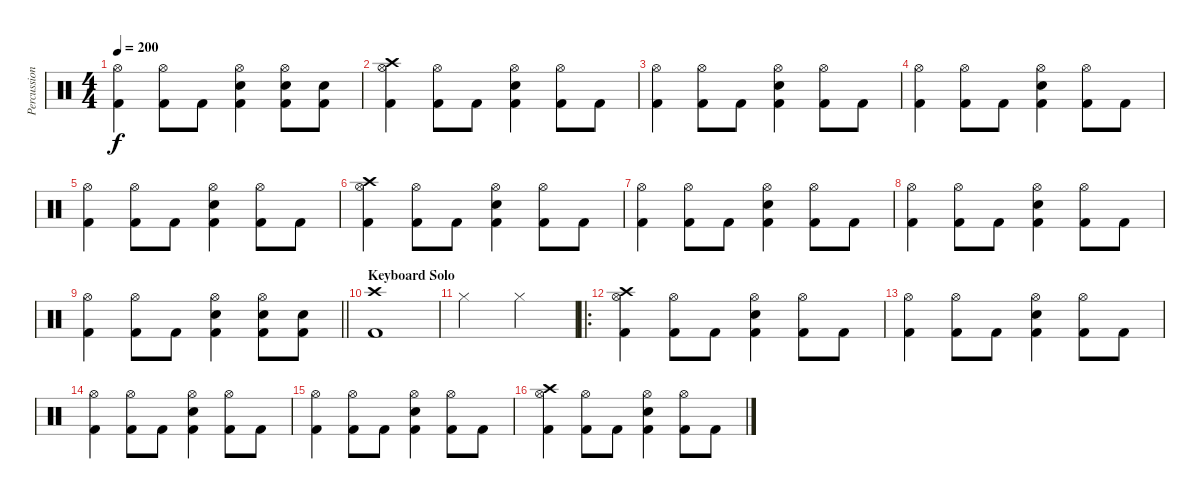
\track ("Percussion" "Percussion") {instrument percussion}
\staff {score}
\articulation defaults
\ts (4 4)
\tempo 200
\clef neutral
\ks c
("Hi-Hat (open)" "Kick (hit) 2").4{dy f} ("Hi-Hat (open)" "Kick (hit) 2").8 "Kick (hit) 2".8 ("Hi-Hat (open)" "Snare (hit) 2" "Kick (hit) 2").4 ("Hi-Hat (open)" "Snare (hit) 2" "Kick (hit) 2").8 ("Snare (hit) 2" "Kick (hit) 2").8 |
("Crash high (hit)" "Hi-Hat (open)" "Kick (hit) 2").4 ("Hi-Hat (open)" "Kick (hit) 2").8 "Kick (hit) 2".8 ("Hi-Hat (open)" "Snare (hit) 2" "Kick (hit) 2").4 ("Hi-Hat (open)" "Kick (hit) 2").8 "Kick (hit) 2".8 |
("Hi-Hat (open)" "Kick (hit) 2").4 ("Hi-Hat (open)" "Kick (hit) 2").8 "Kick (hit) 2".8 ("Hi-Hat (open)" "Snare (hit) 2" "Kick (hit) 2").4 ("Hi-Hat (open)" "Kick (hit) 2").8 "Kick (hit) 2".8 |
("Hi-Hat (open)" "Kick (hit) 2").4 ("Hi-Hat (open)" "Kick (hit) 2").8 "Kick (hit) 2".8 ("Hi-Hat (open)" "Snare (hit) 2" "Kick (hit) 2").4 ("Hi-Hat (open)" "Kick (hit) 2").8 "Kick (hit) 2".8 |
("Hi-Hat (open)" "Kick (hit) 2").4 ("Hi-Hat (open)" "Kick (hit) 2").8 "Kick (hit) 2".8 ("Hi-Hat (open)" "Snare (hit) 2" "Kick (hit) 2").4 ("Hi-Hat (open)" "Kick (hit) 2").8 "Kick (hit) 2".8 |
("Crash high (hit)" "Hi-Hat (open)" "Kick (hit) 2").4 ("Hi-Hat (open)" "Kick (hit) 2").8 "Kick (hit) 2".8 ("Hi-Hat (open)" "Snare (hit) 2" "Kick (hit) 2").4 ("Hi-Hat (open)" "Kick (hit) 2").8 "Kick (hit) 2".8 |
("Hi-Hat (open)" "Kick (hit) 2").4 ("Hi-Hat (open)" "Kick (hit) 2").8 "Kick (hit) 2".8 ("Hi-Hat (open)" "Snare (hit) 2" "Kick (hit) 2").4 ("Hi-Hat (open)" "Kick (hit) 2").8 "Kick (hit) 2".8 |
("Hi-Hat (open)" "Kick (hit) 2").4 ("Hi-Hat (open)" "Kick (hit) 2").8 "Kick (hit) 2".8 ("Hi-Hat (open)" "Snare (hit) 2" "Kick (hit) 2").4 ("Hi-Hat (open)" "Kick (hit) 2").8 "Kick (hit) 2".8 |
\barLineRight lightlight
("Hi-Hat (open)" "Kick (hit) 2").4 ("Hi-Hat (open)" "Kick (hit) 2").8 "Kick (hit) 2".8 ("Hi-Hat (open)" "Snare (hit) 2" "Kick (hit) 2").4 ("Hi-Hat (open)" "Snare (hit) 2" "Kick (hit) 2").8 ("Snare (hit) 2" "Kick (hit) 2").8 |
\section ("" "Keyboard Solo")
("Crash high (hit)" "Kick (hit) 2").1 |
"Hi-Hat (closed)".2 "Hi-Hat (closed)".2 |
\ro
("Crash high (hit)" "Hi-Hat (open)" "Kick (hit) 2").4 ("Hi-Hat (open)" "Kick (hit) 2").8 "Kick (hit) 2".8 ("Hi-Hat (open)" "Snare (hit) 2" "Kick (hit) 2").4 ("Hi-Hat (open)" "Kick (hit) 2").8 "Kick (hit) 2".8 |
("Hi-Hat (open)" "Kick (hit) 2").4 ("Hi-Hat (open)" "Kick (hit) 2").8 "Kick (hit) 2".8 ("Hi-Hat (open)" "Snare (hit) 2" "Kick (hit) 2").4 ("Hi-Hat (open)" "Kick (hit) 2").8 "Kick (hit) 2".8 |
("Hi-Hat (open)" "Kick (hit) 2").4 ("Hi-Hat (open)" "Kick (hit) 2").8 "Kick (hit) 2".8 ("Hi-Hat (open)" "Snare (hit) 2" "Kick (hit) 2").4 ("Hi-Hat (open)" "Kick (hit) 2").8 "Kick (hit) 2".8 |
("Hi-Hat (open)" "Kick (hit) 2").4 ("Hi-Hat (open)" "Kick (hit) 2").8 "Kick (hit) 2".8 ("Hi-Hat (open)" "Snare (hit) 2" "Kick (hit) 2").4 ("Hi-Hat (open)" "Kick (hit) 2").8 "Kick (hit) 2".8 |
("Crash high (hit)" "Hi-Hat (open)" "Kick (hit) 2").4 ("Hi-Hat (open)" "Kick (hit) 2").8 "Kick (hit) 2".8 ("Hi-Hat (open)" "Snare (hit) 2" "Kick (hit) 2").4 ("Hi-Hat (open)" "Kick (hit) 2").8 "Kick (hit) 2".8
